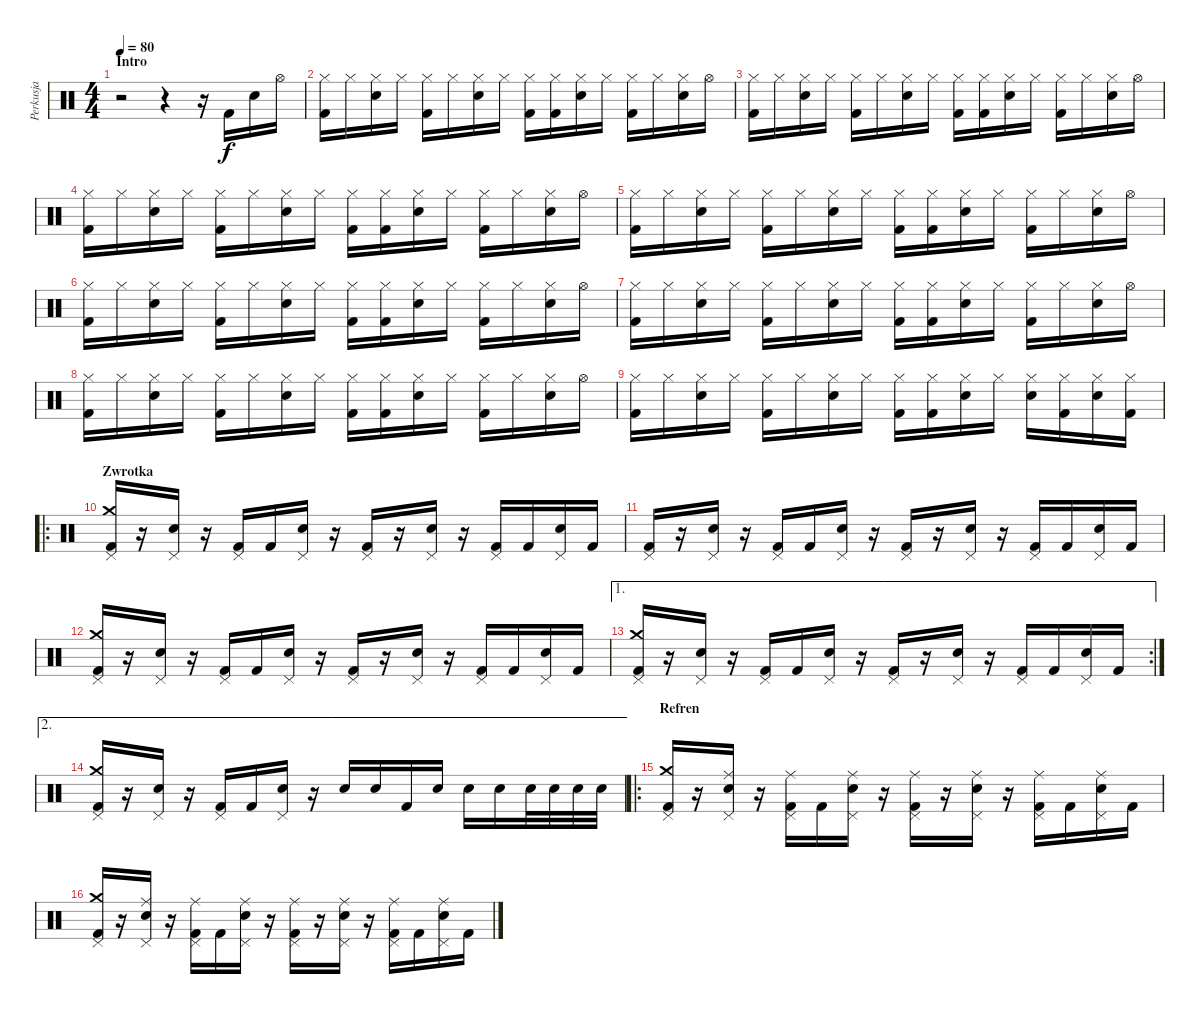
\track ("Perkusja" "Perkusja") {instrument percussion}
\staff {score}
\articulation defaults
\ts (4 4)
\section ("" "Intro")
\tempo 80
\clef neutral
\ks c
r.2{dy f} r.4 r.16 "Kick (hit) 2".16 "Electric Snare (hit)".16 "Hi-Hat (open)".16 |
("Hi-Hat (closed)" "Kick (hit) 2").16 "Hi-Hat (closed)".16 ("Hi-Hat (closed)" "Electric Snare (hit)").16 "Hi-Hat (closed)".16 ("Hi-Hat (closed)" "Kick (hit) 2").16 "Hi-Hat (closed)".16 ("Hi-Hat (closed)" "Electric Snare (hit)").16 "Hi-Hat (closed)".16 ("Hi-Hat (closed)" "Kick (hit) 2").16 ("Hi-Hat (closed)" "Kick (hit) 2").16 ("Hi-Hat (closed)" "Electric Snare (hit)").16 "Hi-Hat (closed)".16 ("Hi-Hat (closed)" "Kick (hit) 2").16 "Hi-Hat (closed)".16 ("Hi-Hat (closed)" "Electric Snare (hit)").16 "Hi-Hat (open)".16 |
("Hi-Hat (closed)" "Kick (hit) 2").16 "Hi-Hat (closed)".16 ("Hi-Hat (closed)" "Electric Snare (hit)").16 "Hi-Hat (closed)".16 ("Hi-Hat (closed)" "Kick (hit) 2").16 "Hi-Hat (closed)".16 ("Hi-Hat (closed)" "Electric Snare (hit)").16 "Hi-Hat (closed)".16 ("Hi-Hat (closed)" "Kick (hit) 2").16 ("Hi-Hat (closed)" "Kick (hit) 2").16 ("Hi-Hat (closed)" "Electric Snare (hit)").16 "Hi-Hat (closed)".16 ("Hi-Hat (closed)" "Kick (hit) 2").16 "Hi-Hat (closed)".16 ("Hi-Hat (closed)" "Electric Snare (hit)").16 "Hi-Hat (open)".16 |
("Hi-Hat (closed)" "Kick (hit) 2").16 "Hi-Hat (closed)".16 ("Hi-Hat (closed)" "Electric Snare (hit)").16 "Hi-Hat (closed)".16 ("Hi-Hat (closed)" "Kick (hit) 2").16 "Hi-Hat (closed)".16 ("Hi-Hat (closed)" "Electric Snare (hit)").16 "Hi-Hat (closed)".16 ("Hi-Hat (closed)" "Kick (hit) 2").16 ("Hi-Hat (closed)" "Kick (hit) 2").16 ("Hi-Hat (closed)" "Electric Snare (hit)").16 "Hi-Hat (closed)".16 ("Hi-Hat (closed)" "Kick (hit) 2").16 "Hi-Hat (closed)".16 ("Hi-Hat (closed)" "Electric Snare (hit)").16 "Hi-Hat (open)".16 |
("Hi-Hat (closed)" "Kick (hit) 2").16 "Hi-Hat (closed)".16 ("Hi-Hat (closed)" "Electric Snare (hit)").16 "Hi-Hat (closed)".16 ("Hi-Hat (closed)" "Kick (hit) 2").16 "Hi-Hat (closed)".16 ("Hi-Hat (closed)" "Electric Snare (hit)").16 "Hi-Hat (closed)".16 ("Hi-Hat (closed)" "Kick (hit) 2").16 ("Hi-Hat (closed)" "Kick (hit) 2").16 ("Hi-Hat (closed)" "Electric Snare (hit)").16 "Hi-Hat (closed)".16 ("Hi-Hat (closed)" "Kick (hit) 2").16 "Hi-Hat (closed)".16 ("Hi-Hat (closed)" "Electric Snare (hit)").16 "Hi-Hat (open)".16 |
("Hi-Hat (closed)" "Kick (hit) 2").16 "Hi-Hat (closed)".16 ("Hi-Hat (closed)" "Electric Snare (hit)").16 "Hi-Hat (closed)".16 ("Hi-Hat (closed)" "Kick (hit) 2").16 "Hi-Hat (closed)".16 ("Hi-Hat (closed)" "Electric Snare (hit)").16 "Hi-Hat (closed)".16 ("Hi-Hat (closed)" "Kick (hit) 2").16 ("Hi-Hat (closed)" "Kick (hit) 2").16 ("Hi-Hat (closed)" "Electric Snare (hit)").16 "Hi-Hat (closed)".16 ("Hi-Hat (closed)" "Kick (hit) 2").16 "Hi-Hat (closed)".16 ("Hi-Hat (closed)" "Electric Snare (hit)").16 "Hi-Hat (open)".16 |
("Hi-Hat (closed)" "Kick (hit) 2").16 "Hi-Hat (closed)".16 ("Hi-Hat (closed)" "Electric Snare (hit)").16 "Hi-Hat (closed)".16 ("Hi-Hat (closed)" "Kick (hit) 2").16 "Hi-Hat (closed)".16 ("Hi-Hat (closed)" "Electric Snare (hit)").16 "Hi-Hat (closed)".16 ("Hi-Hat (closed)" "Kick (hit) 2").16 ("Hi-Hat (closed)" "Kick (hit) 2").16 ("Hi-Hat (closed)" "Electric Snare (hit)").16 "Hi-Hat (closed)".16 ("Hi-Hat (closed)" "Kick (hit) 2").16 "Hi-Hat (closed)".16 ("Hi-Hat (closed)" "Electric Snare (hit)").16 "Hi-Hat (open)".16 |
("Hi-Hat (closed)" "Kick (hit) 2").16 "Hi-Hat (closed)".16 ("Hi-Hat (closed)" "Electric Snare (hit)").16 "Hi-Hat (closed)".16 ("Hi-Hat (closed)" "Kick (hit) 2").16 "Hi-Hat (closed)".16 ("Hi-Hat (closed)" "Electric Snare (hit)").16 "Hi-Hat (closed)".16 ("Hi-Hat (closed)" "Kick (hit) 2").16 ("Hi-Hat (closed)" "Kick (hit) 2").16 ("Hi-Hat (closed)" "Electric Snare (hit)").16 "Hi-Hat (closed)".16 ("Hi-Hat (closed)" "Kick (hit) 2").16 "Hi-Hat (closed)".16 ("Hi-Hat (closed)" "Electric Snare (hit)").16 "Hi-Hat (open)".16 |
("Hi-Hat (closed)" "Kick (hit) 2").16 "Hi-Hat (closed)".16 ("Hi-Hat (closed)" "Electric Snare (hit)").16 "Hi-Hat (closed)".16 ("Hi-Hat (closed)" "Kick (hit) 2").16 "Hi-Hat (closed)".16 ("Hi-Hat (closed)" "Electric Snare (hit)").16 "Hi-Hat (closed)".16 ("Hi-Hat (closed)" "Kick (hit) 2").16 ("Hi-Hat (closed)" "Kick (hit) 2").16 ("Hi-Hat (closed)" "Electric Snare (hit)").16 "Hi-Hat (closed)".16 ("Hi-Hat (closed)" "Electric Snare (hit)").16 ("Hi-Hat (closed)" "Kick (hit) 2").16 ("Hi-Hat (closed)" "Electric Snare (hit)").16 ("Hi-Hat (closed)" "Kick (hit) 2").16 |
\ro
\section ("" "Zwrotka")
("Crash medium (hit)" "Pedal Hi-Hat (hit)" "Kick (hit) 2").16 r.16 ("Pedal Hi-Hat (hit)" "Electric Snare (hit)").16 r.16 ("Pedal Hi-Hat (hit)" "Kick (hit) 2").16 "Kick (hit) 2".16 ("Pedal Hi-Hat (hit)" "Electric Snare (hit)").16 r.16 ("Pedal Hi-Hat (hit)" "Kick (hit) 2").16 r.16 ("Pedal Hi-Hat (hit)" "Electric Snare (hit)").16 r.16 ("Pedal Hi-Hat (hit)" "Kick (hit) 2").16 "Kick (hit) 2".16 ("Pedal Hi-Hat (hit)" "Electric Snare (hit)").16 "Kick (hit) 2".16 |
("Pedal Hi-Hat (hit)" "Kick (hit) 2").16 r.16 ("Pedal Hi-Hat (hit)" "Electric Snare (hit)").16 r.16 ("Pedal Hi-Hat (hit)" "Kick (hit) 2").16 "Kick (hit) 2".16 ("Pedal Hi-Hat (hit)" "Electric Snare (hit)").16 r.16 ("Pedal Hi-Hat (hit)" "Kick (hit) 2").16 r.16 ("Pedal Hi-Hat (hit)" "Electric Snare (hit)").16 r.16 ("Pedal Hi-Hat (hit)" "Kick (hit) 2").16 "Kick (hit) 2".16 ("Pedal Hi-Hat (hit)" "Electric Snare (hit)").16 "Kick (hit) 2".16 |
("Crash medium (hit)" "Pedal Hi-Hat (hit)" "Kick (hit) 2").16 r.16 ("Pedal Hi-Hat (hit)" "Electric Snare (hit)").16 r.16 ("Pedal Hi-Hat (hit)" "Kick (hit) 2").16 "Kick (hit) 2".16 ("Pedal Hi-Hat (hit)" "Electric Snare (hit)").16 r.16 ("Pedal Hi-Hat (hit)" "Kick (hit) 2").16 r.16 ("Pedal Hi-Hat (hit)" "Electric Snare (hit)").16 r.16 ("Pedal Hi-Hat (hit)" "Kick (hit) 2").16 "Kick (hit) 2".16 ("Pedal Hi-Hat (hit)" "Electric Snare (hit)").16 "Kick (hit) 2".16 |
\ae 1
\rc 2
("Crash medium (hit)" "Pedal Hi-Hat (hit)" "Kick (hit) 2").16 r.16 ("Pedal Hi-Hat (hit)" "Electric Snare (hit)").16 r.16 ("Pedal Hi-Hat (hit)" "Kick (hit) 2").16 "Kick (hit) 2".16 ("Pedal Hi-Hat (hit)" "Electric Snare (hit)").16 r.16 ("Pedal Hi-Hat (hit)" "Kick (hit) 2").16 r.16 ("Pedal Hi-Hat (hit)" "Electric Snare (hit)").16 r.16 ("Pedal Hi-Hat (hit)" "Kick (hit) 2").16 "Kick (hit) 2".16 ("Pedal Hi-Hat (hit)" "Electric Snare (hit)").16 "Kick (hit) 2".16 |
\ae 2
("Crash medium (hit)" "Pedal Hi-Hat (hit)" "Kick (hit) 2").16 r.16 ("Pedal Hi-Hat (hit)" "Electric Snare (hit)").16 r.16 ("Pedal Hi-Hat (hit)" "Kick (hit) 2").16 "Kick (hit) 2".16 ("Pedal Hi-Hat (hit)" "Electric Snare (hit)").16 r.16 "Electric Snare (hit)".16 "Electric Snare (hit)".16 "Kick (hit) 2".16 "Electric Snare (hit)".16 "Electric Snare (hit)".16 "Electric Snare (hit)".16 "Electric Snare (hit)".32 "Electric Snare (hit)".32 "Electric Snare (hit)".32 "Electric Snare (hit)".32 |
\ro
\section ("" "Refren")
("Crash medium (hit)" "Pedal Hi-Hat (hit)" "Kick (hit) 2").16 r.16 ("Ride (middle)" "Pedal Hi-Hat (hit)" "Electric Snare (hit)").16 r.16 ("Ride (middle)" "Pedal Hi-Hat (hit)" "Kick (hit) 2").16 "Kick (hit) 2".16 ("Ride (middle)" "Pedal Hi-Hat (hit)" "Electric Snare (hit)").16 r.16 ("Ride (middle)" "Pedal Hi-Hat (hit)" "Kick (hit) 2").16 r.16 ("Ride (middle)" "Pedal Hi-Hat (hit)" "Electric Snare (hit)").16 r.16 ("Ride (middle)" "Pedal Hi-Hat (hit)" "Kick (hit) 2").16 "Kick (hit) 2".16 ("Ride (middle)" "Pedal Hi-Hat (hit)" "Electric Snare (hit)").16 "Kick (hit) 2".16 |
("Crash medium (hit)" "Pedal Hi-Hat (hit)" "Kick (hit) 2").16 r.16 ("Ride (middle)" "Pedal Hi-Hat (hit)" "Electric Snare (hit)").16 r.16 ("Ride (middle)" "Pedal Hi-Hat (hit)" "Kick (hit) 2").16 "Kick (hit) 2".16 ("Ride (middle)" "Pedal Hi-Hat (hit)" "Electric Snare (hit)").16 r.16 ("Ride (middle)" "Pedal Hi-Hat (hit)" "Kick (hit) 2").16 r.16 ("Ride (middle)" "Pedal Hi-Hat (hit)" "Electric Snare (hit)").16 r.16 ("Ride (middle)" "Pedal Hi-Hat (hit)" "Kick (hit) 2").16 "Kick (hit) 2".16 ("Ride (middle)" "Pedal Hi-Hat (hit)" "Electric Snare (hit)").16 "Kick (hit) 2".16
